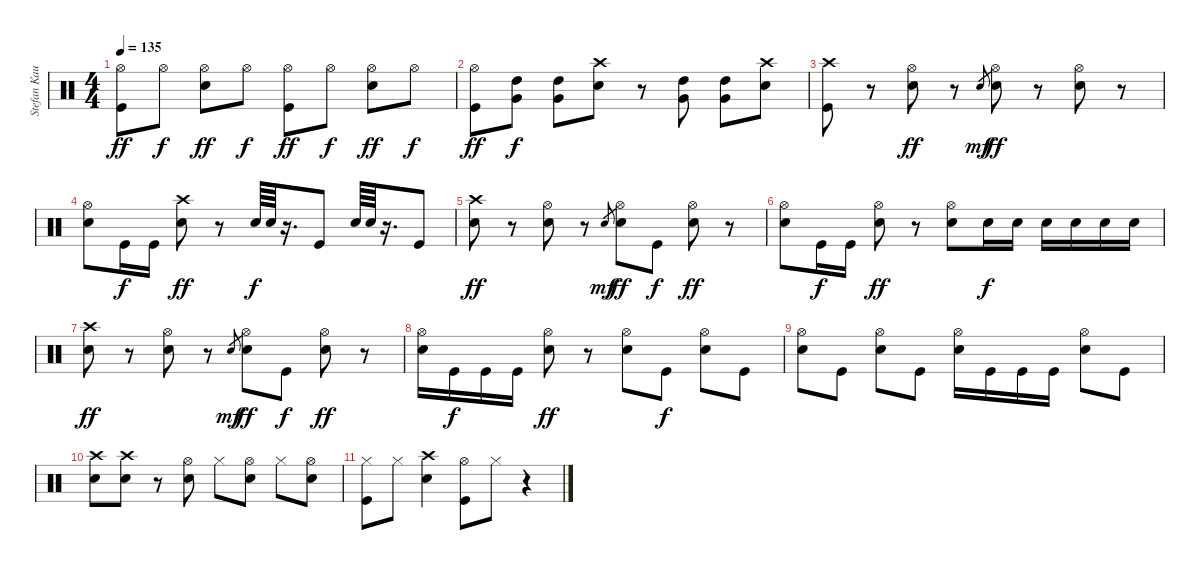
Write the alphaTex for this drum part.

\track ("Stefan Kaufmann" "Stefan Kau") {instrument percussion}
\staff {score}
\articulation defaults
\ts (4 4)
\tempo 135
\clef neutral
\ks c
("Hi-Hat (open)" "Kick (hit)").8{dy ff} "Hi-Hat (open)".8{dy f} ("Hi-Hat (open)" "Snare (hit) 2").8{dy ff} "Hi-Hat (open)".8{dy f} ("Hi-Hat (open)" "Kick (hit)").8{dy ff} "Hi-Hat (open)".8{dy f} ("Hi-Hat (open)" "Snare (hit) 2").8{dy ff} "Hi-Hat (open)".8{dy f} |
("Hi-Hat (open)" "Kick (hit)").8{dy ff} ("Very Low Tom (hit)" "High Tom (hit)").8{dy f} ("Very Low Tom (hit)" "High Tom (hit)").8 ("Crash high (hit)" "Snare (hit) 2").8 r.8 ("Very Low Tom (hit)" "High Tom (hit)").8 ("Very Low Tom (hit)" "High Tom (hit)").8 ("Crash high (hit)" "Snare (hit) 2").8 |
("Crash high (hit)" "Kick (hit)").8 r.8 ("Hi-Hat (open)" "Snare (hit) 2").8{dy ff} r.8 "Snare (hit)".8{gr dy mf} ("Hi-Hat (open)" "Snare (hit) 2").8{dy ff} r.8 ("Hi-Hat (open)" "Snare (hit) 2").8 r.8 |
("Hi-Hat (open)" "Snare (hit) 2").8 "Kick (hit)".16{dy f} "Kick (hit)".16 ("Crash high (hit)" "Snare (hit) 2").8{dy ff} r.8 "Snare (hit) 2".64{dy f} "Snare (hit) 2".64 r.16{d} "Kick (hit)".8 "Snare (hit) 2".64 "Snare (hit) 2".64 r.16{d} "Kick (hit)".8 |
("Crash high (hit)" "Snare (hit) 2").8{dy ff} r.8 ("Hi-Hat (open)" "Snare (hit) 2").8 r.8 "Snare (hit)".8{gr dy mf} ("Hi-Hat (open)" "Snare (hit) 2").8{dy ff} "Kick (hit)".8{dy f} ("Hi-Hat (open)" "Snare (hit) 2").8{dy ff} r.8 |
("Hi-Hat (open)" "Snare (hit) 2").8 "Kick (hit)".16{dy f} "Kick (hit)".16 ("Hi-Hat (open)" "Snare (hit) 2").8{dy ff} r.8 ("Hi-Hat (open)" "Snare (hit) 2").8 "Snare (hit) 2".16{dy f} "Snare (hit) 2".16 "Snare (hit) 2".16 "Snare (hit) 2".16 "Snare (hit) 2".16 "Snare (hit) 2".16 |
("Crash high (hit)" "Snare (hit) 2").8{dy ff} r.8 ("Hi-Hat (open)" "Snare (hit) 2").8 r.8 "Snare (hit)".8{gr dy mf} ("Hi-Hat (open)" "Snare (hit) 2").8{dy ff} "Kick (hit)".8{dy f} ("Hi-Hat (open)" "Snare (hit) 2").8{dy ff} r.8 |
("Hi-Hat (open)" "Snare (hit) 2").16 "Kick (hit)".16{dy f} "Kick (hit)".16 "Kick (hit)".16 ("Hi-Hat (open)" "Snare (hit) 2").8{dy ff} r.8 ("Hi-Hat (open)" "Snare (hit) 2").8 "Kick (hit)".8{dy f} ("Hi-Hat (open)" "Snare (hit) 2").8 "Kick (hit)".8 |
("Hi-Hat (open)" "Snare (hit) 2").8 "Kick (hit)".8 ("Hi-Hat (open)" "Snare (hit) 2").8 "Kick (hit)".8 ("Hi-Hat (open)" "Snare (hit) 2").16 "Kick (hit)".16 "Kick (hit)".16 "Kick (hit)".16 ("Hi-Hat (open)" "Snare (hit) 2").8 "Kick (hit)".8 |
("Crash high (hit)" "Snare (hit) 2").8 ("Crash high (hit)" "Snare (hit) 2").8 r.8 ("Hi-Hat (open)" "Snare (hit) 2").8 "Hi-Hat (closed)".8 ("Hi-Hat (open)" "Snare (hit) 2").8 "Hi-Hat (closed)".8 ("Hi-Hat (open)" "Snare (hit) 2").8 |
("Hi-Hat (closed)" "Kick (hit)").8 "Hi-Hat (closed)".8 ("Crash high (hit)" "Snare (hit) 2").4 ("Hi-Hat (open)" "Kick (hit)").8 "Hi-Hat (closed)".8 r.4
